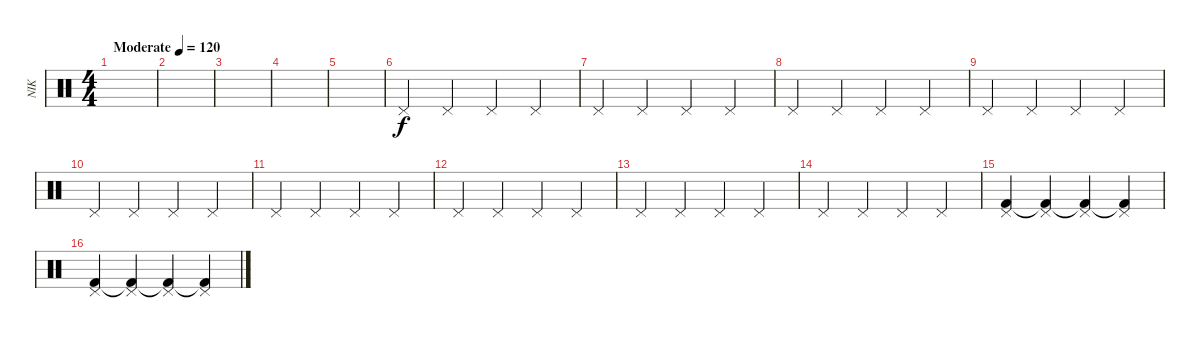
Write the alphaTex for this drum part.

\track ("NIK" "NIK") {instrument percussion}
\staff {score}
\articulation defaults
\ts (4 4)
\tempo (120 "Moderate")
\clef neutral
\ks c
|
|
|
|
|
"Pedal Hi-Hat (hit)".4 "Pedal Hi-Hat (hit)".4 "Pedal Hi-Hat (hit)".4 "Pedal Hi-Hat (hit)".4 |
"Pedal Hi-Hat (hit)".4 "Pedal Hi-Hat (hit)".4 "Pedal Hi-Hat (hit)".4 "Pedal Hi-Hat (hit)".4 |
"Pedal Hi-Hat (hit)".4 "Pedal Hi-Hat (hit)".4 "Pedal Hi-Hat (hit)".4 "Pedal Hi-Hat (hit)".4 |
"Pedal Hi-Hat (hit)".4 "Pedal Hi-Hat (hit)".4 "Pedal Hi-Hat (hit)".4 "Pedal Hi-Hat (hit)".4 |
"Pedal Hi-Hat (hit)".4 "Pedal Hi-Hat (hit)".4 "Pedal Hi-Hat (hit)".4 "Pedal Hi-Hat (hit)".4 |
"Pedal Hi-Hat (hit)".4 "Pedal Hi-Hat (hit)".4 "Pedal Hi-Hat (hit)".4 "Pedal Hi-Hat (hit)".4 |
"Pedal Hi-Hat (hit)".4 "Pedal Hi-Hat (hit)".4 "Pedal Hi-Hat (hit)".4 "Pedal Hi-Hat (hit)".4 |
"Pedal Hi-Hat (hit)".4 "Pedal Hi-Hat (hit)".4 "Pedal Hi-Hat (hit)".4 "Pedal Hi-Hat (hit)".4 |
"Pedal Hi-Hat (hit)".4 "Pedal Hi-Hat (hit)".4 "Pedal Hi-Hat (hit)".4 "Pedal Hi-Hat (hit)".4 |
("Pedal Hi-Hat (hit)" "Kick (hit) 2").4 ("Pedal Hi-Hat (hit)" "Kick (hit) 2"{t}).4 ("Pedal Hi-Hat (hit)" "Kick (hit) 2"{t}).4 ("Pedal Hi-Hat (hit)" "Kick (hit) 2"{t}).4 |
("Pedal Hi-Hat (hit)" "Kick (hit) 2").4 ("Pedal Hi-Hat (hit)" "Kick (hit) 2"{t}).4 ("Pedal Hi-Hat (hit)" "Kick (hit) 2"{t}).4 ("Pedal Hi-Hat (hit)" "Kick (hit) 2"{t}).4
